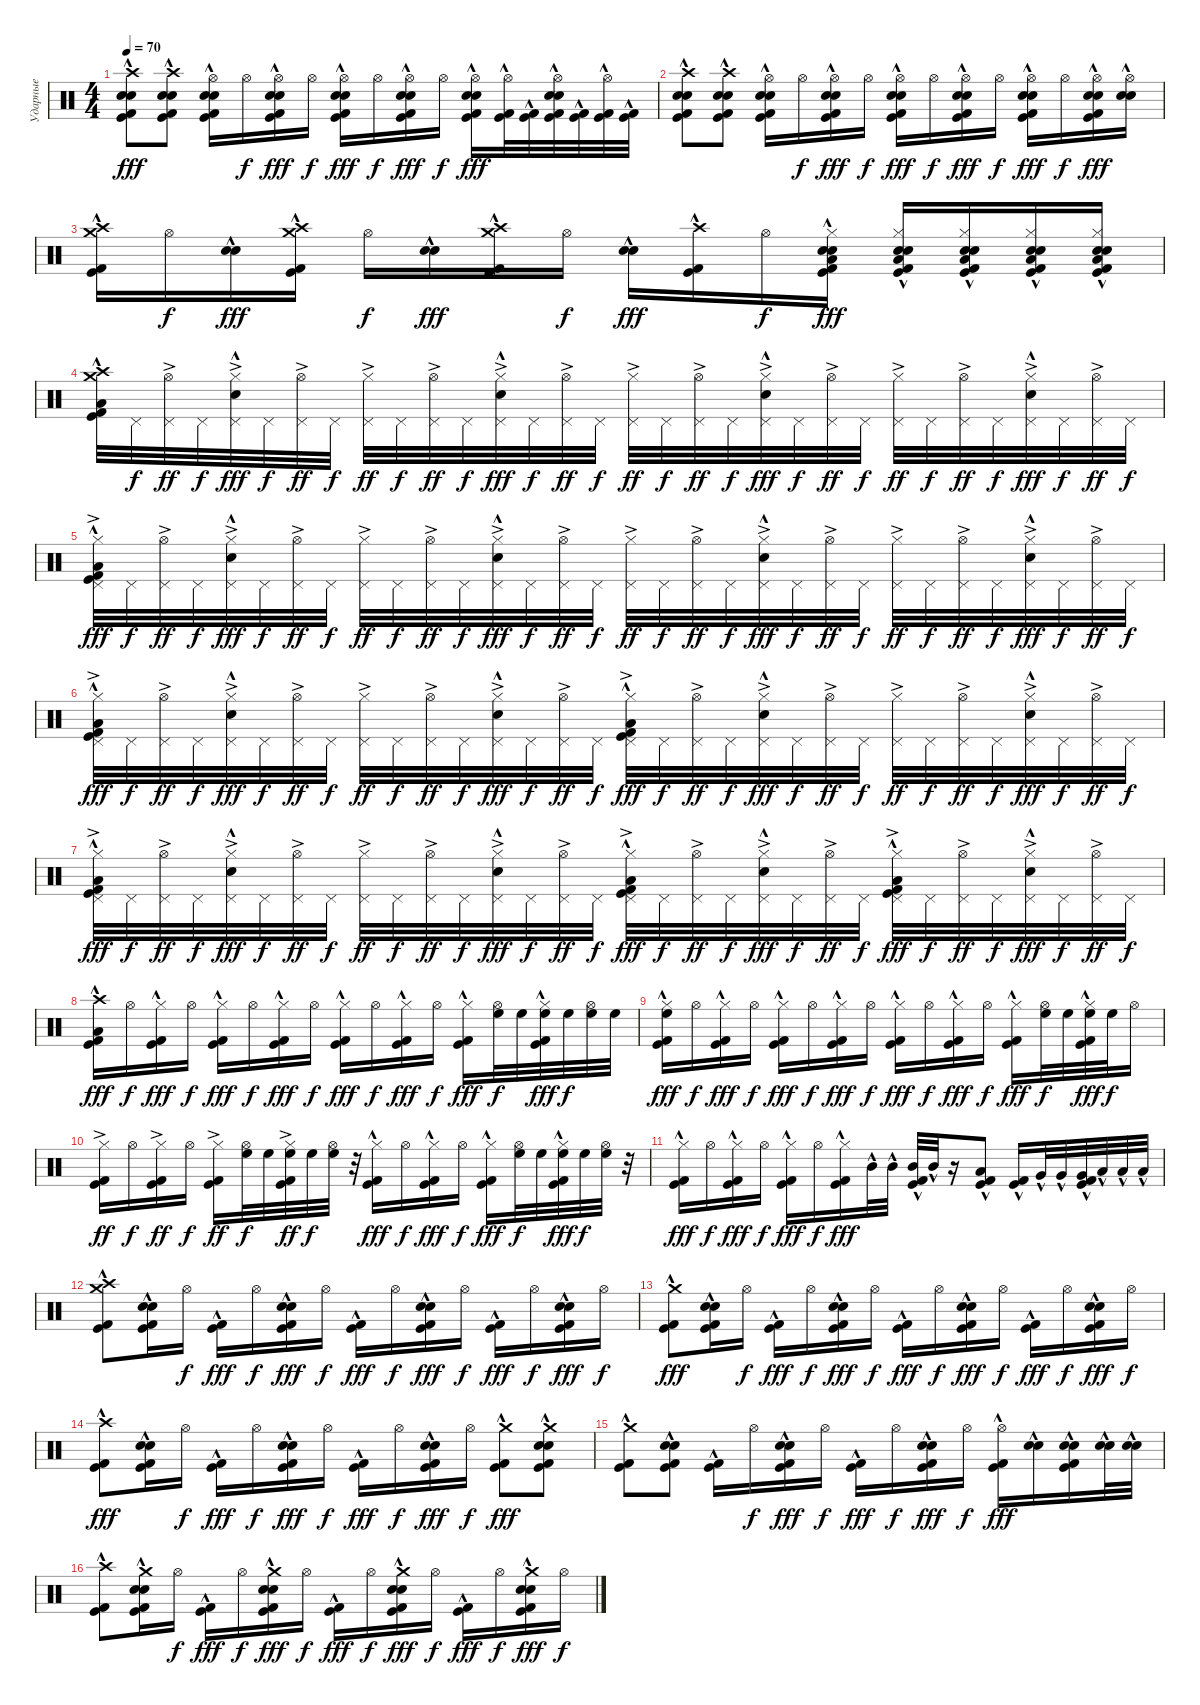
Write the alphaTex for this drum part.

\track ("Ударные" "Ударные") {instrument percussion}
\staff {score}
\articulation defaults
\ts (4 4)
\tempo 70
\clef neutral
\ks c
("Crash high (hit)"{hac} "Kick (hit) 2"{hac} "Snare (hit) 2"{hac} "Kick (hit)"{hac} "Electric Snare (hit)"{hac}).8{dy fff} ("Crash high (hit)"{hac} "Kick (hit) 2"{hac} "Snare (hit) 2"{hac} "Kick (hit)"{hac} "Electric Snare (hit)"{hac}).8 ("Hi-Hat (open)" "Kick (hit) 2"{hac} "Snare (hit) 2"{hac} "Kick (hit)"{hac} "Electric Snare (hit)"{hac}).16 "Hi-Hat (open)".16{dy f} ("Hi-Hat (open)" "Kick (hit) 2"{hac} "Snare (hit) 2"{hac} "Kick (hit)"{hac} "Electric Snare (hit)"{hac}).16{dy fff} "Hi-Hat (open)".16{dy f} ("Hi-Hat (open)" "Kick (hit) 2"{hac} "Snare (hit) 2"{hac} "Kick (hit)"{hac} "Electric Snare (hit)"{hac}).16{dy fff} "Hi-Hat (open)".16{dy f} ("Hi-Hat (open)" "Kick (hit) 2"{hac} "Snare (hit) 2"{hac} "Kick (hit)"{hac} "Electric Snare (hit)"{hac}).16{dy fff} "Hi-Hat (open)".16{dy f} ("Hi-Hat (open)" "Kick (hit) 2"{hac} "Snare (hit) 2"{hac} "Kick (hit)"{hac} "Electric Snare (hit)"{hac}).16{dy fff} ("Hi-Hat (open)" "Kick (hit) 2"{hac} "Kick (hit)"{hac}).32 ("Kick (hit) 2"{hac} "Kick (hit)"{hac}).32 ("Hi-Hat (open)" "Kick (hit) 2"{hac} "Snare (hit) 2"{hac} "Kick (hit)"{hac} "Electric Snare (hit)"{hac}).32 ("Kick (hit) 2"{hac} "Kick (hit)"{hac}).32 ("Hi-Hat (open)" "Kick (hit) 2"{hac} "Kick (hit)"{hac}).32 ("Kick (hit)"{hac} "Kick (hit) 2"{hac}).32 |
("Crash high (hit)"{hac} "Kick (hit) 2"{hac} "Snare (hit) 2"{hac} "Kick (hit)"{hac} "Electric Snare (hit)"{hac}).8 ("Crash high (hit)"{hac} "Kick (hit) 2"{hac} "Snare (hit) 2"{hac} "Kick (hit)"{hac} "Electric Snare (hit)"{hac}).8 ("Hi-Hat (open)" "Kick (hit) 2"{hac} "Snare (hit) 2"{hac} "Kick (hit)"{hac} "Electric Snare (hit)"{hac}).16 "Hi-Hat (open)".16{dy f} ("Hi-Hat (open)" "Kick (hit) 2"{hac} "Snare (hit) 2"{hac} "Kick (hit)"{hac} "Electric Snare (hit)"{hac}).16{dy fff} "Hi-Hat (open)".16{dy f} ("Hi-Hat (open)" "Kick (hit) 2"{hac} "Snare (hit) 2"{hac} "Kick (hit)"{hac} "Electric Snare (hit)"{hac}).16{dy fff} "Hi-Hat (open)".16{dy f} ("Hi-Hat (open)" "Kick (hit) 2"{hac} "Snare (hit) 2"{hac} "Kick (hit)"{hac} "Electric Snare (hit)"{hac}).16{dy fff} "Hi-Hat (open)".16{dy f} ("Hi-Hat (open)" "Kick (hit) 2"{hac} "Snare (hit) 2"{hac} "Kick (hit)"{hac} "Electric Snare (hit)"{hac}).16{dy fff} "Hi-Hat (open)".16{dy f} ("Hi-Hat (open)" "Kick (hit) 2"{hac} "Snare (hit) 2"{hac} "Kick (hit)"{hac} "Electric Snare (hit)"{hac}).16{dy fff} ("Hi-Hat (open)" "Snare (hit) 2"{hac} "Electric Snare (hit)"{hac}).16 |
("Kick (hit)"{hac} "Crash high (hit)"{hac} "Kick (hit) 2"{hac} "Crash medium (hit)"{hac}).16 "Hi-Hat (open)".16{dy f} ("Snare (hit) 2"{hac} "Electric Snare (hit)"{hac}).16{dy fff} ("Kick (hit)"{hac} "Crash high (hit)"{hac} "Kick (hit) 2"{hac} "Crash medium (hit)"{hac}).16 "Hi-Hat (open)".16{dy f} ("Snare (hit) 2"{hac} "Electric Snare (hit)"{hac}).16{dy fff} ("Kick (hit)"{hac} "Crash high (hit)"{hac} "Kick (hit) 2"{hac} "Crash medium (hit)"{hac}).16 "Hi-Hat (open)".16{dy f} ("Snare (hit) 2"{hac} "Electric Snare (hit)"{hac}).16{dy fff} ("Kick (hit)"{hac} "Crash high (hit)"{hac} "Kick (hit) 2"{hac}).16 "Hi-Hat (open)".16{dy f} ("Hi-Hat (closed)"{hac} "Snare (hit) 2"{hac} "Kick (hit)"{hac} "Electric Snare (hit)"{hac} "Kick (hit) 2"{hac} "Low Floor Tom (hit)"{hac}).16{dy fff} ("Hi-Hat (closed)"{hac} "Snare (hit) 2"{hac} "Kick (hit)"{hac} "Electric Snare (hit)"{hac} "Kick (hit) 2"{hac} "Low Floor Tom (hit)"{hac}).16 ("Hi-Hat (closed)"{hac} "Snare (hit) 2"{hac} "Kick (hit)"{hac} "Electric Snare (hit)"{hac} "Kick (hit) 2"{hac} "Low Floor Tom (hit)"{hac}).16 ("Hi-Hat (closed)"{hac} "Snare (hit) 2"{hac} "Kick (hit)"{hac} "Electric Snare (hit)"{hac} "Kick (hit) 2"{hac} "Low Floor Tom (hit)"{hac}).16 ("Hi-Hat (closed)"{hac} "Snare (hit) 2"{hac} "Kick (hit)"{hac} "Electric Snare (hit)"{hac} "Kick (hit) 2"{hac} "Low Floor Tom (hit)"{hac}).16 |
("Crash high (hit)"{hac} "Kick (hit) 2"{hac} "Crash medium (hit)"{hac} "Low Floor Tom (hit)"{hac} "Kick (hit)"{hac}).32 "Pedal Hi-Hat (hit)".32{dy f} ("Pedal Hi-Hat (hit)" "Hi-Hat (open)"{ac}).32{dy ff} "Pedal Hi-Hat (hit)".32{dy f} ("Pedal Hi-Hat (hit)" "Hi-Hat (closed)"{ac} "Electric Snare (hit)"{hac}).32{dy fff} "Pedal Hi-Hat (hit)".32{dy f} ("Pedal Hi-Hat (hit)" "Hi-Hat (open)"{ac}).32{dy ff} "Pedal Hi-Hat (hit)".32{dy f} ("Pedal Hi-Hat (hit)" "Hi-Hat (closed)"{ac}).32{dy ff} "Pedal Hi-Hat (hit)".32{dy f} ("Pedal Hi-Hat (hit)" "Hi-Hat (open)"{ac}).32{dy ff} "Pedal Hi-Hat (hit)".32{dy f} ("Pedal Hi-Hat (hit)" "Hi-Hat (closed)"{ac} "Electric Snare (hit)"{hac}).32{dy fff} "Pedal Hi-Hat (hit)".32{dy f} ("Pedal Hi-Hat (hit)" "Hi-Hat (open)"{ac}).32{dy ff} "Pedal Hi-Hat (hit)".32{dy f} ("Pedal Hi-Hat (hit)" "Hi-Hat (closed)"{ac}).32{dy ff} "Pedal Hi-Hat (hit)".32{dy f} ("Pedal Hi-Hat (hit)" "Hi-Hat (open)"{ac}).32{dy ff} "Pedal Hi-Hat (hit)".32{dy f} ("Pedal Hi-Hat (hit)" "Hi-Hat (closed)"{ac} "Electric Snare (hit)"{hac}).32{dy fff} "Pedal Hi-Hat (hit)".32{dy f} ("Pedal Hi-Hat (hit)" "Hi-Hat (open)"{ac}).32{dy ff} "Pedal Hi-Hat (hit)".32{dy f} ("Pedal Hi-Hat (hit)" "Hi-Hat (closed)"{ac}).32{dy ff} "Pedal Hi-Hat (hit)".32{dy f} ("Pedal Hi-Hat (hit)" "Hi-Hat (open)"{ac}).32{dy ff} "Pedal Hi-Hat (hit)".32{dy f} ("Pedal Hi-Hat (hit)" "Hi-Hat (closed)"{ac} "Electric Snare (hit)"{hac}).32{dy fff} "Pedal Hi-Hat (hit)".32{dy f} ("Pedal Hi-Hat (hit)" "Hi-Hat (open)"{ac}).32{dy ff} "Pedal Hi-Hat (hit)".32{dy f} |
("Pedal Hi-Hat (hit)" "Kick (hit) 2"{hac} "Hi-Hat (closed)"{ac} "Low Floor Tom (hit)"{hac} "Kick (hit)"{hac}).32{dy fff} "Pedal Hi-Hat (hit)".32{dy f} ("Pedal Hi-Hat (hit)" "Hi-Hat (open)"{ac}).32{dy ff} "Pedal Hi-Hat (hit)".32{dy f} ("Pedal Hi-Hat (hit)" "Hi-Hat (closed)"{ac} "Electric Snare (hit)"{hac}).32{dy fff} "Pedal Hi-Hat (hit)".32{dy f} ("Pedal Hi-Hat (hit)" "Hi-Hat (open)"{ac}).32{dy ff} "Pedal Hi-Hat (hit)".32{dy f} ("Pedal Hi-Hat (hit)" "Hi-Hat (closed)"{ac}).32{dy ff} "Pedal Hi-Hat (hit)".32{dy f} ("Pedal Hi-Hat (hit)" "Hi-Hat (open)"{ac}).32{dy ff} "Pedal Hi-Hat (hit)".32{dy f} ("Pedal Hi-Hat (hit)" "Hi-Hat (closed)"{ac} "Electric Snare (hit)"{hac}).32{dy fff} "Pedal Hi-Hat (hit)".32{dy f} ("Pedal Hi-Hat (hit)" "Hi-Hat (open)"{ac}).32{dy ff} "Pedal Hi-Hat (hit)".32{dy f} ("Pedal Hi-Hat (hit)" "Hi-Hat (closed)"{ac}).32{dy ff} "Pedal Hi-Hat (hit)".32{dy f} ("Pedal Hi-Hat (hit)" "Hi-Hat (open)"{ac}).32{dy ff} "Pedal Hi-Hat (hit)".32{dy f} ("Pedal Hi-Hat (hit)" "Hi-Hat (closed)"{ac} "Electric Snare (hit)"{hac}).32{dy fff} "Pedal Hi-Hat (hit)".32{dy f} ("Pedal Hi-Hat (hit)" "Hi-Hat (open)"{ac}).32{dy ff} "Pedal Hi-Hat (hit)".32{dy f} ("Pedal Hi-Hat (hit)" "Hi-Hat (closed)"{ac}).32{dy ff} "Pedal Hi-Hat (hit)".32{dy f} ("Pedal Hi-Hat (hit)" "Hi-Hat (open)"{ac}).32{dy ff} "Pedal Hi-Hat (hit)".32{dy f} ("Pedal Hi-Hat (hit)" "Hi-Hat (closed)"{ac} "Electric Snare (hit)"{hac}).32{dy fff} "Pedal Hi-Hat (hit)".32{dy f} ("Pedal Hi-Hat (hit)" "Hi-Hat (open)"{ac}).32{dy ff} "Pedal Hi-Hat (hit)".32{dy f} |
("Pedal Hi-Hat (hit)" "Kick (hit) 2"{hac} "Hi-Hat (closed)"{ac} "Low Floor Tom (hit)"{hac} "Kick (hit)"{hac}).32{dy fff} "Pedal Hi-Hat (hit)".32{dy f} ("Pedal Hi-Hat (hit)" "Hi-Hat (open)"{ac}).32{dy ff} "Pedal Hi-Hat (hit)".32{dy f} ("Pedal Hi-Hat (hit)" "Hi-Hat (closed)"{ac} "Electric Snare (hit)"{hac}).32{dy fff} "Pedal Hi-Hat (hit)".32{dy f} ("Pedal Hi-Hat (hit)" "Hi-Hat (open)"{ac}).32{dy ff} "Pedal Hi-Hat (hit)".32{dy f} ("Pedal Hi-Hat (hit)" "Hi-Hat (closed)"{ac}).32{dy ff} "Pedal Hi-Hat (hit)".32{dy f} ("Pedal Hi-Hat (hit)" "Hi-Hat (open)"{ac}).32{dy ff} "Pedal Hi-Hat (hit)".32{dy f} ("Pedal Hi-Hat (hit)" "Hi-Hat (closed)"{ac} "Electric Snare (hit)"{hac}).32{dy fff} "Pedal Hi-Hat (hit)".32{dy f} ("Pedal Hi-Hat (hit)" "Hi-Hat (open)"{ac}).32{dy ff} "Pedal Hi-Hat (hit)".32{dy f} ("Pedal Hi-Hat (hit)" "Kick (hit) 2"{hac} "Hi-Hat (closed)"{ac} "Low Floor Tom (hit)"{hac} "Kick (hit)"{hac}).32{dy fff} "Pedal Hi-Hat (hit)".32{dy f} ("Pedal Hi-Hat (hit)" "Hi-Hat (open)"{ac}).32{dy ff} "Pedal Hi-Hat (hit)".32{dy f} ("Pedal Hi-Hat (hit)" "Hi-Hat (closed)"{ac} "Electric Snare (hit)"{hac}).32{dy fff} "Pedal Hi-Hat (hit)".32{dy f} ("Pedal Hi-Hat (hit)" "Hi-Hat (open)"{ac}).32{dy ff} "Pedal Hi-Hat (hit)".32{dy f} ("Pedal Hi-Hat (hit)" "Hi-Hat (closed)"{ac}).32{dy ff} "Pedal Hi-Hat (hit)".32{dy f} ("Pedal Hi-Hat (hit)" "Hi-Hat (open)"{ac}).32{dy ff} "Pedal Hi-Hat (hit)".32{dy f} ("Pedal Hi-Hat (hit)" "Hi-Hat (closed)"{ac} "Electric Snare (hit)"{hac}).32{dy fff} "Pedal Hi-Hat (hit)".32{dy f} ("Pedal Hi-Hat (hit)" "Hi-Hat (open)"{ac}).32{dy ff} "Pedal Hi-Hat (hit)".32{dy f} |
("Pedal Hi-Hat (hit)" "Kick (hit) 2"{hac} "Hi-Hat (closed)"{ac} "Low Floor Tom (hit)"{hac} "Kick (hit)"{hac}).32{dy fff} "Pedal Hi-Hat (hit)".32{dy f} ("Pedal Hi-Hat (hit)" "Hi-Hat (open)"{ac}).32{dy ff} "Pedal Hi-Hat (hit)".32{dy f} ("Pedal Hi-Hat (hit)" "Hi-Hat (closed)"{ac} "Electric Snare (hit)"{hac}).32{dy fff} "Pedal Hi-Hat (hit)".32{dy f} ("Pedal Hi-Hat (hit)" "Hi-Hat (open)"{ac}).32{dy ff} "Pedal Hi-Hat (hit)".32{dy f} ("Pedal Hi-Hat (hit)" "Hi-Hat (closed)"{ac}).32{dy ff} "Pedal Hi-Hat (hit)".32{dy f} ("Pedal Hi-Hat (hit)" "Hi-Hat (open)"{ac}).32{dy ff} "Pedal Hi-Hat (hit)".32{dy f} ("Pedal Hi-Hat (hit)" "Hi-Hat (closed)"{ac} "Electric Snare (hit)"{hac}).32{dy fff} "Pedal Hi-Hat (hit)".32{dy f} ("Pedal Hi-Hat (hit)" "Hi-Hat (open)"{ac}).32{dy ff} "Pedal Hi-Hat (hit)".32{dy f} ("Pedal Hi-Hat (hit)" "Kick (hit) 2"{hac} "Hi-Hat (closed)"{ac} "Low Floor Tom (hit)"{hac} "Kick (hit)"{hac}).32{dy fff} "Pedal Hi-Hat (hit)".32{dy f} ("Pedal Hi-Hat (hit)" "Hi-Hat (open)"{ac}).32{dy ff} "Pedal Hi-Hat (hit)".32{dy f} ("Pedal Hi-Hat (hit)" "Hi-Hat (closed)"{ac} "Electric Snare (hit)"{hac}).32{dy fff} "Pedal Hi-Hat (hit)".32{dy f} ("Pedal Hi-Hat (hit)" "Hi-Hat (open)"{ac}).32{dy ff} "Pedal Hi-Hat (hit)".32{dy f} ("Pedal Hi-Hat (hit)" "Kick (hit) 2"{hac} "Hi-Hat (closed)"{ac} "Low Floor Tom (hit)"{hac} "Kick (hit)"{hac}).32{dy fff} "Pedal Hi-Hat (hit)".32{dy f} ("Pedal Hi-Hat (hit)" "Hi-Hat (open)"{ac}).32{dy ff} "Pedal Hi-Hat (hit)".32{dy f} ("Pedal Hi-Hat (hit)" "Hi-Hat (closed)"{ac} "Electric Snare (hit)"{hac}).32{dy fff} "Pedal Hi-Hat (hit)".32{dy f} ("Pedal Hi-Hat (hit)" "Hi-Hat (open)"{ac}).32{dy ff} "Pedal Hi-Hat (hit)".32{dy f} |
("Crash high (hit)"{hac} "Kick (hit) 2"{hac} "Kick (hit)"{hac} "Low Floor Tom (hit)"{hac}).16{dy fff} "Hi-Hat (open)".16{dy f} ("Hi-Hat (closed)" "Kick (hit) 2"{hac} "Kick (hit)"{hac}).16{dy fff} "Hi-Hat (open)".16{dy f} ("Hi-Hat (closed)" "Kick (hit) 2"{hac} "Kick (hit)"{hac}).16{dy fff} "Hi-Hat (open)".16{dy f} ("Hi-Hat (closed)" "Kick (hit) 2"{hac} "Kick (hit)"{hac}).16{dy fff} "Hi-Hat (open)".16{dy f} ("Hi-Hat (closed)" "Kick (hit) 2"{hac} "Kick (hit)"{hac}).16{dy fff} "Hi-Hat (open)".16{dy f} ("Hi-Hat (closed)" "Kick (hit) 2"{hac} "Kick (hit)"{hac}).16{dy fff} "Hi-Hat (open)".16{dy f} ("Hi-Hat (closed)" "Kick (hit) 2"{hac} "Kick (hit)"{hac}).16{dy fff} ("Hi-Hat (open)" "High Floor Tom (hit)").32{dy f} "High Floor Tom (hit)".32 ("Hi-Hat (closed)" "Kick (hit) 2"{hac} "Kick (hit)"{hac} "High Floor Tom (hit)").32{dy fff} "High Floor Tom (hit)".32{dy f} ("Hi-Hat (open)" "High Floor Tom (hit)").32 "High Floor Tom (hit)".32 |
("Hi-Hat (closed)" "Kick (hit) 2"{hac} "Kick (hit)"{hac} "High Floor Tom (hit)").16{dy fff} "Hi-Hat (open)".16{dy f} ("Hi-Hat (closed)" "Kick (hit) 2"{hac} "Kick (hit)"{hac}).16{dy fff} "Hi-Hat (open)".16{dy f} ("Hi-Hat (closed)" "Kick (hit) 2"{hac} "Kick (hit)"{hac}).16{dy fff} "Hi-Hat (open)".16{dy f} ("Hi-Hat (closed)" "Kick (hit) 2"{hac} "Kick (hit)"{hac}).16{dy fff} "Hi-Hat (open)".16{dy f} ("Hi-Hat (closed)" "Kick (hit) 2"{hac} "Kick (hit)"{hac}).16{dy fff} "Hi-Hat (open)".16{dy f} ("Hi-Hat (closed)" "Kick (hit) 2"{hac} "Kick (hit)"{hac}).16{dy fff} "Hi-Hat (open)".16{dy f} ("Hi-Hat (closed)" "Kick (hit) 2"{hac} "Kick (hit)"{hac}).16{dy fff} ("Hi-Hat (open)" "High Floor Tom (hit)").32{dy f} "High Floor Tom (hit)".32 ("Hi-Hat (closed)" "Kick (hit) 2"{hac} "Kick (hit)"{hac} "High Floor Tom (hit)").32{dy fff} "High Floor Tom (hit)".32{dy f} "Hi-Hat (open)".16 |
("Hi-Hat (closed)" "Kick (hit) 2"{ac} "Kick (hit)"{ac}).16{dy ff} "Hi-Hat (open)".16{dy f} ("Hi-Hat (closed)" "Kick (hit) 2"{ac} "Kick (hit)"{ac}).16{dy ff} "Hi-Hat (open)".16{dy f} ("Hi-Hat (closed)" "Kick (hit) 2"{ac} "Kick (hit)"{ac}).16{dy ff} ("Hi-Hat (open)" "High Floor Tom (hit)").32{dy f} "High Floor Tom (hit)".32 ("Kick (hit)"{ac} "Kick (hit) 2"{ac} "Hi-Hat (closed)" "High Floor Tom (hit)").32{dy ff} "High Floor Tom (hit)".32{dy f} ("Hi-Hat (open)" "High Floor Tom (hit)").32 r.32 ("Hi-Hat (closed)" "Kick (hit) 2"{hac} "Kick (hit)"{hac}).16{dy fff} "Hi-Hat (open)".16{dy f} ("Hi-Hat (closed)" "Kick (hit) 2"{hac} "Kick (hit)"{hac}).16{dy fff} "Hi-Hat (open)".16{dy f} ("Hi-Hat (closed)" "Kick (hit) 2"{hac} "Kick (hit)"{hac}).16{dy fff} ("Hi-Hat (open)" "High Floor Tom (hit)").32{dy f} "High Floor Tom (hit)".32 ("Kick (hit)"{hac} "Kick (hit) 2"{hac} "Hi-Hat (closed)" "High Floor Tom (hit)").32{dy fff} "High Floor Tom (hit)".32{dy f} ("Hi-Hat (open)" "High Floor Tom (hit)").32 r.32 |
("Hi-Hat (closed)" "Kick (hit) 2"{hac} "Kick (hit)"{hac}).16{dy fff} "Hi-Hat (open)".16{dy f} ("Hi-Hat (closed)" "Kick (hit) 2"{hac} "Kick (hit)"{hac}).16{dy fff} "Hi-Hat (open)".16{dy f} ("Hi-Hat (closed)" "Kick (hit) 2"{hac} "Kick (hit)"{hac}).16{dy fff} "Hi-Hat (open)".16{dy f} ("Hi-Hat (closed)" "Kick (hit) 2"{hac} "Kick (hit)"{hac}).16{dy fff} "Mid Tom (hit)"{hac}.32 "Mid Tom (hit)"{hac}.32 ("Mid Tom (hit)"{hac} "Kick (hit)"{hac} "Kick (hit) 2"{hac}).32 "Mid Tom (hit)"{hac}.32 r.16 ("Kick (hit)" "Kick (hit) 2"{hac} "Low Tom (hit)"{hac}).8 ("Kick (hit)"{hac} "Kick (hit) 2"{hac}).16 "Very Low Tom (hit)"{hac}.32 "Very Low Tom (hit)"{hac}.32 ("Very Low Tom (hit)"{hac} "Kick (hit)"{hac} "Kick (hit) 2"{hac}).32 "Low Floor Tom (hit)"{hac}.32 "Low Floor Tom (hit)"{hac}.32 "Low Floor Tom (hit)"{hac}.32 |
("Crash high (hit)"{hac} "Kick (hit)"{hac} "Kick (hit) 2"{hac} "Crash medium (hit)"{hac}).8 ("Snare (hit) 2"{hac} "Electric Snare (hit)"{hac} "Kick (hit)"{hac} "Kick (hit) 2"{hac}).16 "Hi-Hat (open)".16{dy f} ("Kick (hit)"{hac} "Kick (hit) 2"{hac}).16{dy fff} "Hi-Hat (open)".16{dy f} ("Snare (hit) 2"{hac} "Electric Snare (hit)"{hac} "Kick (hit)"{hac} "Kick (hit) 2"{hac}).16{dy fff} "Hi-Hat (open)".16{dy f} ("Kick (hit)"{hac} "Kick (hit) 2"{hac}).16{dy fff} "Hi-Hat (open)".16{dy f} ("Snare (hit) 2"{hac} "Electric Snare (hit)"{hac} "Kick (hit)"{hac} "Kick (hit) 2"{hac}).16{dy fff} "Hi-Hat (open)".16{dy f} ("Kick (hit)"{hac} "Kick (hit) 2"{hac}).16{dy fff} "Hi-Hat (open)".16{dy f} ("Snare (hit) 2"{hac} "Electric Snare (hit)"{hac} "Kick (hit)"{hac} "Kick (hit) 2"{hac}).16{dy fff} "Hi-Hat (open)".16{dy f} |
("Crash medium (hit)"{hac} "Kick (hit)"{hac} "Kick (hit) 2"{hac}).8{dy fff} ("Snare (hit) 2"{hac} "Electric Snare (hit)"{hac} "Kick (hit)"{hac} "Kick (hit) 2"{hac}).16 "Hi-Hat (open)".16{dy f} ("Kick (hit)"{hac} "Kick (hit) 2"{hac}).16{dy fff} "Hi-Hat (open)".16{dy f} ("Snare (hit) 2"{hac} "Electric Snare (hit)"{hac} "Kick (hit)"{hac} "Kick (hit) 2"{hac}).16{dy fff} "Hi-Hat (open)".16{dy f} ("Kick (hit)"{hac} "Kick (hit) 2"{hac}).16{dy fff} "Hi-Hat (open)".16{dy f} ("Snare (hit) 2"{hac} "Electric Snare (hit)"{hac} "Kick (hit)"{hac} "Kick (hit) 2"{hac}).16{dy fff} "Hi-Hat (open)".16{dy f} ("Kick (hit)"{hac} "Kick (hit) 2"{hac}).16{dy fff} "Hi-Hat (open)".16{dy f} ("Snare (hit) 2"{hac} "Electric Snare (hit)"{hac} "Kick (hit)"{hac} "Kick (hit) 2"{hac}).16{dy fff} "Hi-Hat (open)".16{dy f} |
("Crash high (hit)" "Kick (hit)"{hac} "Kick (hit) 2"{hac}).8{dy fff} ("Snare (hit) 2"{hac} "Electric Snare (hit)"{hac} "Kick (hit)"{hac} "Kick (hit) 2"{hac}).16 "Hi-Hat (open)".16{dy f} ("Kick (hit)"{hac} "Kick (hit) 2"{hac}).16{dy fff} "Hi-Hat (open)".16{dy f} ("Snare (hit) 2"{hac} "Electric Snare (hit)"{hac} "Kick (hit)"{hac} "Kick (hit) 2"{hac}).16{dy fff} "Hi-Hat (open)".16{dy f} ("Kick (hit)"{hac} "Kick (hit) 2"{hac}).16{dy fff} "Hi-Hat (open)".16{dy f} ("Snare (hit) 2"{hac} "Electric Snare (hit)"{hac} "Kick (hit)"{hac} "Kick (hit) 2"{hac}).16{dy fff} "Hi-Hat (open)".16{dy f} ("Crash medium (hit)"{hac} "Kick (hit)"{hac} "Kick (hit) 2"{hac}).8{dy fff} ("Crash medium (hit)"{hac} "Snare (hit) 2"{hac} "Electric Snare (hit)"{hac} "Kick (hit)"{hac} "Kick (hit) 2"{hac}).8 |
("Crash medium (hit)"{hac} "Kick (hit)"{hac} "Kick (hit) 2"{hac}).8 ("Snare (hit) 2"{hac} "Electric Snare (hit)"{hac} "Kick (hit)"{hac} "Kick (hit) 2"{hac}).8 ("Kick (hit)"{hac} "Kick (hit) 2"{hac}).16 "Hi-Hat (open)".16{dy f} ("Snare (hit) 2"{hac} "Electric Snare (hit)"{hac} "Kick (hit)"{hac} "Kick (hit) 2"{hac}).16{dy fff} "Hi-Hat (open)".16{dy f} ("Kick (hit)"{hac} "Kick (hit) 2"{hac}).16{dy fff} "Hi-Hat (open)".16{dy f} ("Snare (hit) 2"{hac} "Electric Snare (hit)"{hac} "Kick (hit)"{hac} "Kick (hit) 2"{hac}).16{dy fff} "Hi-Hat (open)".16{dy f} ("Hi-Hat (open)" "Kick (hit)"{hac} "Kick (hit) 2"{hac}).16{dy fff} ("Snare (hit) 2"{hac} "Electric Snare (hit)"{hac}).16 ("Snare (hit) 2"{hac} "Kick (hit)"{hac} "Kick (hit) 2"{hac} "Electric Snare (hit)"{hac}).16 ("Snare (hit) 2"{hac} "Electric Snare (hit)"{hac}).32 ("Snare (hit) 2"{hac} "Electric Snare (hit)"{hac}).32 |
("Crash high (hit)"{hac} "Kick (hit)"{hac} "Kick (hit) 2"{hac}).8 ("Crash medium (hit)"{hac} "Snare (hit) 2"{hac} "Electric Snare (hit)"{hac} "Kick (hit)"{hac} "Kick (hit) 2"{hac}).16 "Hi-Hat (open)".16{dy f} ("Kick (hit)"{hac} "Kick (hit) 2"{hac}).16{dy fff} "Hi-Hat (open)".16{dy f} ("Crash medium (hit)"{hac} "Snare (hit) 2"{hac} "Electric Snare (hit)"{hac} "Kick (hit)"{hac} "Kick (hit) 2"{hac}).16{dy fff} "Hi-Hat (open)".16{dy f} ("Kick (hit)"{hac} "Kick (hit) 2"{hac}).16{dy fff} "Hi-Hat (open)".16{dy f} ("Crash medium (hit)"{hac} "Snare (hit) 2"{hac} "Electric Snare (hit)"{hac} "Kick (hit)"{hac} "Kick (hit) 2"{hac}).16{dy fff} "Hi-Hat (open)".16{dy f} ("Kick (hit)"{hac} "Kick (hit) 2"{hac}).16{dy fff} "Hi-Hat (open)".16{dy f} ("Crash medium (hit)"{hac} "Snare (hit) 2"{hac} "Electric Snare (hit)"{hac} "Kick (hit)"{hac} "Kick (hit) 2"{hac}).16{dy fff} "Hi-Hat (open)".16{dy f}
